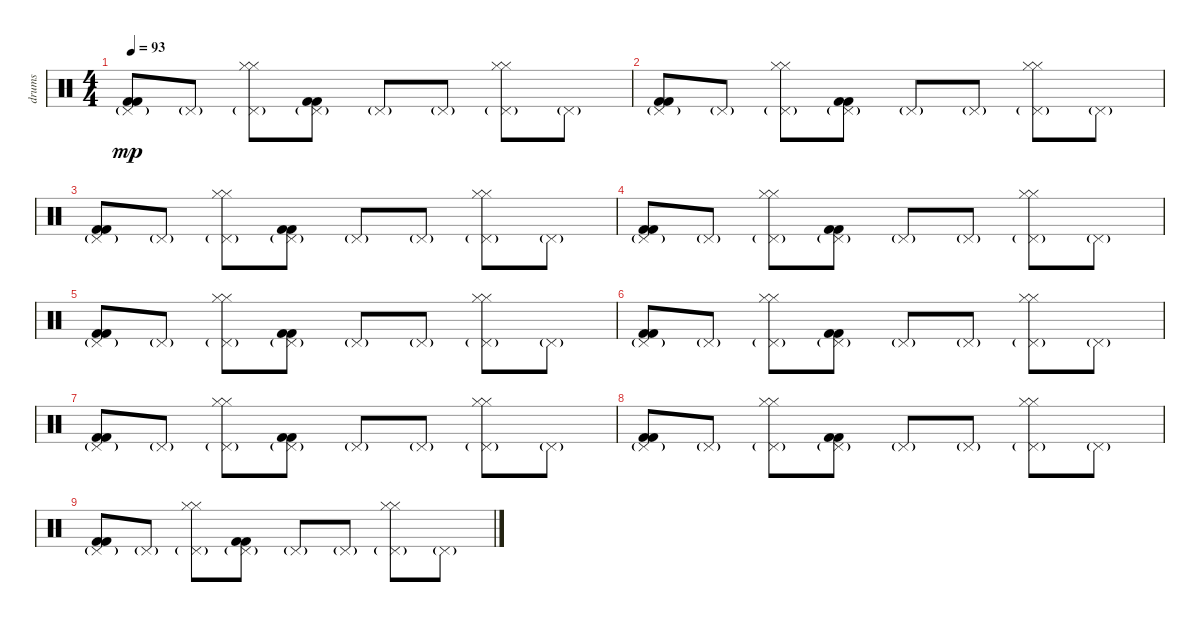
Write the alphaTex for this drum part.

\track ("drums" "drums") {instrument percussion}
\staff {score}
\articulation defaults
\ts (4 4)
\tempo 93
\clef neutral
\ks c
("Kick (hit) 2" "Kick (hit) 2" "Pedal Hi-Hat (hit)"{g}).8{dy mp} "Pedal Hi-Hat (hit)"{g}.8 ("Hi-Hat (closed)" "Hi-Hat (closed)" "Pedal Hi-Hat (hit)"{g}).8 ("Kick (hit) 2" "Kick (hit) 2" "Pedal Hi-Hat (hit)"{g}).8 "Pedal Hi-Hat (hit)"{g}.8 "Pedal Hi-Hat (hit)"{g}.8 ("Hi-Hat (closed)" "Hi-Hat (closed)" "Pedal Hi-Hat (hit)"{g}).8 "Pedal Hi-Hat (hit)"{g}.8 |
("Kick (hit) 2" "Kick (hit) 2" "Pedal Hi-Hat (hit)"{g}).8 "Pedal Hi-Hat (hit)"{g}.8 ("Hi-Hat (closed)" "Hi-Hat (closed)" "Pedal Hi-Hat (hit)"{g}).8 ("Kick (hit) 2" "Kick (hit) 2" "Pedal Hi-Hat (hit)"{g}).8 "Pedal Hi-Hat (hit)"{g}.8 "Pedal Hi-Hat (hit)"{g}.8 ("Hi-Hat (closed)" "Hi-Hat (closed)" "Pedal Hi-Hat (hit)"{g}).8 "Pedal Hi-Hat (hit)"{g}.8 |
("Kick (hit) 2" "Kick (hit) 2" "Pedal Hi-Hat (hit)"{g}).8 "Pedal Hi-Hat (hit)"{g}.8 ("Hi-Hat (closed)" "Hi-Hat (closed)" "Pedal Hi-Hat (hit)"{g}).8 ("Kick (hit) 2" "Kick (hit) 2" "Pedal Hi-Hat (hit)"{g}).8 "Pedal Hi-Hat (hit)"{g}.8 "Pedal Hi-Hat (hit)"{g}.8 ("Hi-Hat (closed)" "Hi-Hat (closed)" "Pedal Hi-Hat (hit)"{g}).8 "Pedal Hi-Hat (hit)"{g}.8 |
("Kick (hit) 2" "Kick (hit) 2" "Pedal Hi-Hat (hit)"{g}).8 "Pedal Hi-Hat (hit)"{g}.8 ("Hi-Hat (closed)" "Hi-Hat (closed)" "Pedal Hi-Hat (hit)"{g}).8 ("Kick (hit) 2" "Kick (hit) 2" "Pedal Hi-Hat (hit)"{g}).8 "Pedal Hi-Hat (hit)"{g}.8 "Pedal Hi-Hat (hit)"{g}.8 ("Hi-Hat (closed)" "Hi-Hat (closed)" "Pedal Hi-Hat (hit)"{g}).8 "Pedal Hi-Hat (hit)"{g}.8 |
("Kick (hit) 2" "Kick (hit) 2" "Pedal Hi-Hat (hit)"{g}).8 "Pedal Hi-Hat (hit)"{g}.8 ("Hi-Hat (closed)" "Hi-Hat (closed)" "Pedal Hi-Hat (hit)"{g}).8 ("Kick (hit) 2" "Kick (hit) 2" "Pedal Hi-Hat (hit)"{g}).8 "Pedal Hi-Hat (hit)"{g}.8 "Pedal Hi-Hat (hit)"{g}.8 ("Hi-Hat (closed)" "Hi-Hat (closed)" "Pedal Hi-Hat (hit)"{g}).8 "Pedal Hi-Hat (hit)"{g}.8 |
("Kick (hit) 2" "Kick (hit) 2" "Pedal Hi-Hat (hit)"{g}).8 "Pedal Hi-Hat (hit)"{g}.8 ("Hi-Hat (closed)" "Hi-Hat (closed)" "Pedal Hi-Hat (hit)"{g}).8 ("Kick (hit) 2" "Kick (hit) 2" "Pedal Hi-Hat (hit)"{g}).8 "Pedal Hi-Hat (hit)"{g}.8 "Pedal Hi-Hat (hit)"{g}.8 ("Hi-Hat (closed)" "Hi-Hat (closed)" "Pedal Hi-Hat (hit)"{g}).8 "Pedal Hi-Hat (hit)"{g}.8 |
("Kick (hit) 2" "Kick (hit) 2" "Pedal Hi-Hat (hit)"{g}).8 "Pedal Hi-Hat (hit)"{g}.8 ("Hi-Hat (closed)" "Hi-Hat (closed)" "Pedal Hi-Hat (hit)"{g}).8 ("Kick (hit) 2" "Kick (hit) 2" "Pedal Hi-Hat (hit)"{g}).8 "Pedal Hi-Hat (hit)"{g}.8 "Pedal Hi-Hat (hit)"{g}.8 ("Hi-Hat (closed)" "Hi-Hat (closed)" "Pedal Hi-Hat (hit)"{g}).8 "Pedal Hi-Hat (hit)"{g}.8 |
("Kick (hit) 2" "Kick (hit) 2" "Pedal Hi-Hat (hit)"{g}).8 "Pedal Hi-Hat (hit)"{g}.8 ("Hi-Hat (closed)" "Hi-Hat (closed)" "Pedal Hi-Hat (hit)"{g}).8 ("Kick (hit) 2" "Kick (hit) 2" "Pedal Hi-Hat (hit)"{g}).8 "Pedal Hi-Hat (hit)"{g}.8 "Pedal Hi-Hat (hit)"{g}.8 ("Hi-Hat (closed)" "Hi-Hat (closed)" "Pedal Hi-Hat (hit)"{g}).8 "Pedal Hi-Hat (hit)"{g}.8 |
("Kick (hit) 2" "Kick (hit) 2" "Pedal Hi-Hat (hit)"{g}).8 "Pedal Hi-Hat (hit)"{g}.8 ("Hi-Hat (closed)" "Hi-Hat (closed)" "Pedal Hi-Hat (hit)"{g}).8 ("Kick (hit) 2" "Kick (hit) 2" "Pedal Hi-Hat (hit)"{g}).8 "Pedal Hi-Hat (hit)"{g}.8 "Pedal Hi-Hat (hit)"{g}.8 ("Hi-Hat (closed)" "Hi-Hat (closed)" "Pedal Hi-Hat (hit)"{g}).8 "Pedal Hi-Hat (hit)"{g}.8
